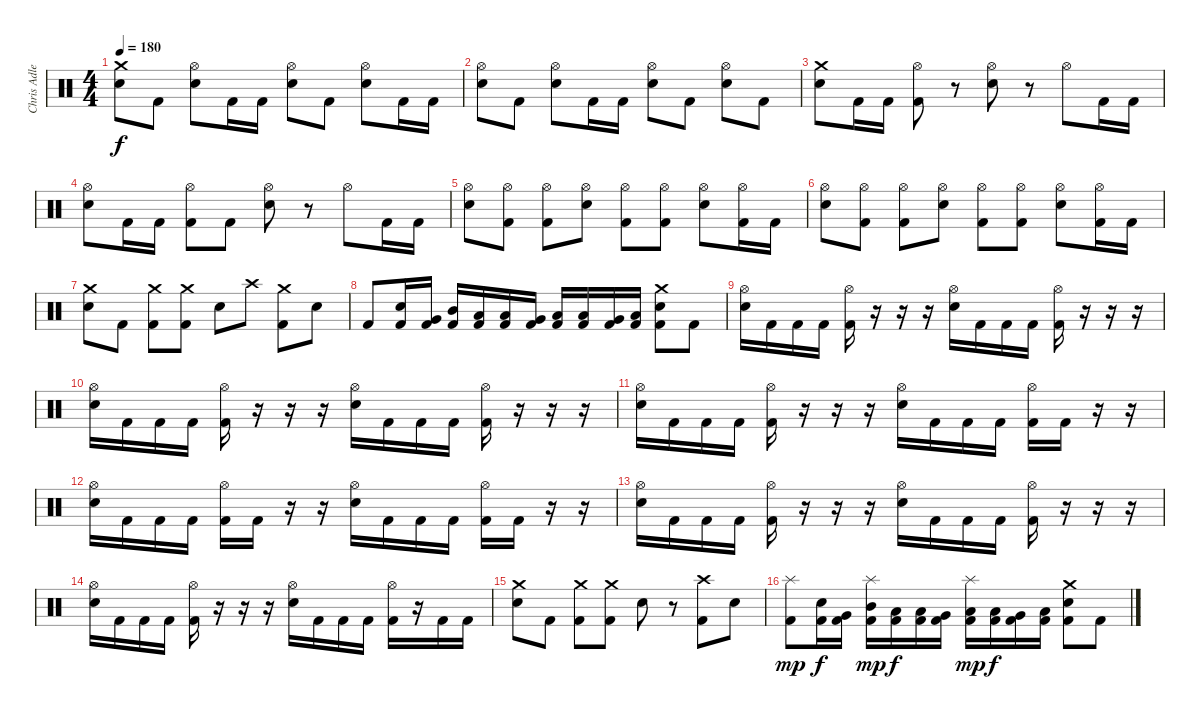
\track ("Chris Adler - Drums" "Chris Adle") {instrument percussion}
\staff {score}
\articulation defaults
\ts (4 4)
\tempo 180
\clef neutral
\ks c
("Crash medium (hit)" "Snare (hit) 2").8{dy f} "Kick (hit) 2".8 ("Hi-Hat (open)" "Snare (hit) 2").8 "Kick (hit) 2".16 "Kick (hit) 2".16 ("Hi-Hat (open)" "Snare (hit) 2").8 "Kick (hit) 2".8 ("Hi-Hat (open)" "Snare (hit) 2").8 "Kick (hit) 2".16 "Kick (hit) 2".16 |
("Hi-Hat (open)" "Snare (hit) 2").8 "Kick (hit) 2".8 ("Hi-Hat (open)" "Snare (hit) 2").8 "Kick (hit) 2".16 "Kick (hit) 2".16 ("Hi-Hat (open)" "Snare (hit) 2").8 "Kick (hit) 2".8 ("Hi-Hat (open)" "Snare (hit) 2").8 "Kick (hit) 2".8 |
("Crash medium (hit)" "Snare (hit) 2").8 "Kick (hit) 2".16 "Kick (hit) 2".16 ("Hi-Hat (open)" "Kick (hit) 2").8 r.8 ("Hi-Hat (open)" "Snare (hit) 2").8 r.8 "Hi-Hat (open)".8 "Kick (hit) 2".16 "Kick (hit) 2".16 |
("Hi-Hat (open)" "Snare (hit) 2").8 "Kick (hit) 2".16 "Kick (hit) 2".16 ("Hi-Hat (open)" "Kick (hit) 2").8 "Kick (hit) 2".8 ("Hi-Hat (open)" "Snare (hit) 2").8 r.8 "Hi-Hat (open)".8 "Kick (hit) 2".16 "Kick (hit) 2".16 |
("Hi-Hat (open)" "Snare (hit) 2").8 ("Hi-Hat (open)" "Kick (hit) 2").8 ("Hi-Hat (open)" "Kick (hit) 2").8 ("Hi-Hat (open)" "Snare (hit) 2").8 ("Hi-Hat (open)" "Kick (hit) 2").8 ("Hi-Hat (open)" "Kick (hit) 2").8 ("Hi-Hat (open)" "Snare (hit) 2").8 ("Hi-Hat (open)" "Kick (hit) 2").16 "Kick (hit) 2".16 |
("Hi-Hat (open)" "Snare (hit) 2").8 ("Hi-Hat (open)" "Kick (hit) 2").8 ("Hi-Hat (open)" "Kick (hit) 2").8 ("Hi-Hat (open)" "Snare (hit) 2").8 ("Hi-Hat (open)" "Kick (hit) 2").8 ("Hi-Hat (open)" "Kick (hit) 2").8 ("Hi-Hat (open)" "Snare (hit) 2").8 ("Hi-Hat (open)" "Kick (hit) 2").16 "Kick (hit) 2".16 |
("Crash medium (hit)" "Snare (hit) 2").8 "Kick (hit) 2".8 ("Crash medium (hit)" "Kick (hit) 2").8 ("Crash medium (hit)" "Kick (hit) 2").8 "Snare (hit) 2".8 "Crash high (hit)".8 ("Crash medium (hit)" "Kick (hit) 2").8 "Snare (hit) 2".8 |
"Kick (hit) 2".8 ("Snare (hit) 2" "Kick (hit) 2").16 ("Very Low Tom (hit)" "Kick (hit) 2").16 ("Mid Tom (hit)" "Kick (hit) 2").16 ("Low Tom (hit)" "Kick (hit) 2").16 ("Low Floor Tom (hit)" "Kick (hit) 2").16 ("Very Low Tom (hit)" "Kick (hit) 2").16 ("Low Tom (hit)" "Kick (hit) 2").16 ("Low Floor Tom (hit)" "Kick (hit) 2").16 ("Very Low Tom (hit)" "Kick (hit) 2").16 ("Low Tom (hit)" "Kick (hit) 2").16 ("Crash medium (hit)" "Snare (hit) 2" "Kick (hit) 2").8 "Kick (hit) 2".8 |
("Hi-Hat (open)" "Snare (hit) 2").16 "Kick (hit) 2".16 "Kick (hit) 2".16 "Kick (hit) 2".16 ("Hi-Hat (open)" "Kick (hit) 2").16 r.16 r.16 r.16 ("Hi-Hat (open)" "Snare (hit) 2").16 "Kick (hit) 2".16 "Kick (hit) 2".16 "Kick (hit) 2".16 ("Hi-Hat (open)" "Kick (hit) 2").16 r.16 r.16 r.16 |
("Hi-Hat (open)" "Snare (hit) 2").16 "Kick (hit) 2".16 "Kick (hit) 2".16 "Kick (hit) 2".16 ("Hi-Hat (open)" "Kick (hit) 2").16 r.16 r.16 r.16 ("Hi-Hat (open)" "Snare (hit) 2").16 "Kick (hit) 2".16 "Kick (hit) 2".16 "Kick (hit) 2".16 ("Hi-Hat (open)" "Kick (hit) 2").16 r.16 r.16 r.16 |
("Hi-Hat (open)" "Snare (hit) 2").16 "Kick (hit) 2".16 "Kick (hit) 2".16 "Kick (hit) 2".16 ("Hi-Hat (open)" "Kick (hit) 2").16 r.16 r.16 r.16 ("Hi-Hat (open)" "Snare (hit) 2").16 "Kick (hit) 2".16 "Kick (hit) 2".16 "Kick (hit) 2".16 ("Hi-Hat (open)" "Kick (hit) 2").16 "Kick (hit) 2".16 r.16 r.16 |
("Hi-Hat (open)" "Snare (hit) 2").16 "Kick (hit) 2".16 "Kick (hit) 2".16 "Kick (hit) 2".16 ("Hi-Hat (open)" "Kick (hit) 2").16 "Kick (hit) 2".16 r.16 r.16 ("Hi-Hat (open)" "Snare (hit) 2").16 "Kick (hit) 2".16 "Kick (hit) 2".16 "Kick (hit) 2".16 ("Hi-Hat (open)" "Kick (hit) 2").16 "Kick (hit) 2".16 r.16 r.16 |
("Hi-Hat (open)" "Snare (hit) 2").16 "Kick (hit) 2".16 "Kick (hit) 2".16 "Kick (hit) 2".16 ("Hi-Hat (open)" "Kick (hit) 2").16 r.16 r.16 r.16 ("Hi-Hat (open)" "Snare (hit) 2").16 "Kick (hit) 2".16 "Kick (hit) 2".16 "Kick (hit) 2".16 ("Hi-Hat (open)" "Kick (hit) 2").16 r.16 r.16 r.16 |
("Hi-Hat (open)" "Snare (hit) 2").16 "Kick (hit) 2".16 "Kick (hit) 2".16 "Kick (hit) 2".16 ("Hi-Hat (open)" "Kick (hit) 2").16 r.16 r.16 r.16 ("Hi-Hat (open)" "Snare (hit) 2").16 "Kick (hit) 2".16 "Kick (hit) 2".16 "Kick (hit) 2".16 ("Hi-Hat (open)" "Kick (hit) 2").16 r.16 "Kick (hit) 2".16 "Kick (hit) 2".16 |
("Crash medium (hit)" "Snare (hit) 2").8 "Kick (hit) 2".8 ("Crash medium (hit)" "Kick (hit) 2").8 ("Crash medium (hit)" "Kick (hit) 2").8 "Snare (hit) 2".8 r.8 ("Crash high (hit)" "Kick (hit) 2").8 "Snare (hit) 2".8 |
("Splash (hit)" "Kick (hit) 2").8{dy mp} ("Snare (hit) 2" "Kick (hit) 2").16{dy f} ("Very Low Tom (hit)" "Kick (hit) 2").16 ("Splash (hit)" "Mid Tom (hit)" "Kick (hit) 2").16{dy mp} ("Low Tom (hit)" "Kick (hit) 2").16{dy f} ("Low Floor Tom (hit)" "Kick (hit) 2").16 ("Very Low Tom (hit)" "Kick (hit) 2").16 ("Splash (hit)" "Low Tom (hit)" "Kick (hit) 2").16{dy mp} ("Low Floor Tom (hit)" "Kick (hit) 2").16{dy f} ("Very Low Tom (hit)" "Kick (hit) 2").16 ("Low Tom (hit)" "Kick (hit) 2").16 ("Crash medium (hit)" "Snare (hit) 2" "Kick (hit) 2").8 "Kick (hit) 2".8
